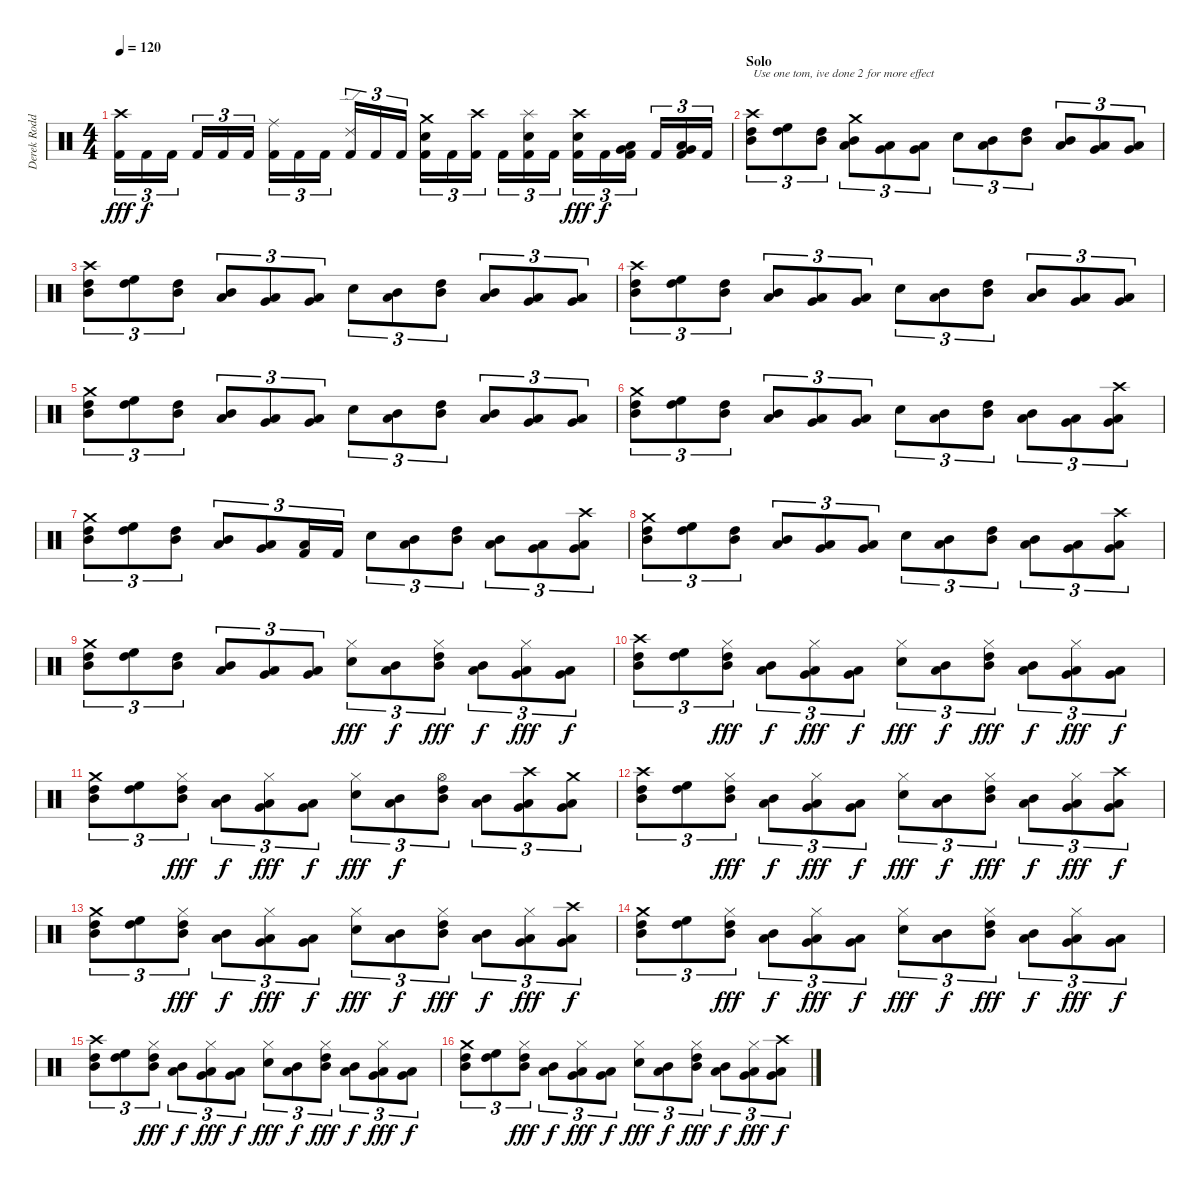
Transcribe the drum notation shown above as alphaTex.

\track ("Derek Roddy" "Derek Rodd") {instrument percussion}
\staff {score}
\articulation defaults
\ts (4 4)
\tempo 120
\clef neutral
\ks c
("Crash high (hit)" "Kick (hit) 2").16{tu (3 2) dy fff} "Kick (hit) 2".16{tu (3 2) dy f} "Kick (hit) 2".16{tu (3 2)} "Kick (hit) 2".16{tu (3 2)} "Kick (hit) 2".16{tu (3 2)} "Kick (hit) 2".16{tu (3 2)} ("Ride (middle)" "Kick (hit) 2").16{tu (3 2)} "Kick (hit) 2".16{tu (3 2)} "Kick (hit) 2".16{tu (3 2)} ("Ride (edge) 2" "Kick (hit) 2").16{tu (3 2)} "Kick (hit) 2".16{tu (3 2)} "Kick (hit) 2".16{tu (3 2)} ("Crash medium (hit)" "Electric Snare (hit)" "Kick (hit) 2").16{tu (3 2)} "Kick (hit) 2".16{tu (3 2)} ("Crash high (hit)" "Kick (hit) 2").16{tu (3 2)} "Kick (hit) 2".16{tu (3 2)} ("Splash (hit)" "Electric Snare (hit)" "Kick (hit) 2").16{tu (3 2)} "Kick (hit) 2".16{tu (3 2)} ("Crash high (hit)" "Electric Snare (hit)" "Kick (hit) 2").16{tu (3 2) dy fff} "Kick (hit) 2".16{tu (3 2) dy f} ("Low Tom (hit)" "Very Low Tom (hit)" "Kick (hit) 2").16{tu (3 2)} "Kick (hit) 2".16{tu (3 2)} ("Low Floor Tom (hit)" "Very Low Tom (hit)" "Kick (hit) 2").16{tu (3 2)} "Kick (hit) 2".16{tu (3 2)} |
\section ("" "Solo")
("Crash high (hit)" "Mid Tom (hit)" "High Tom (hit)").8{tu (3 2) txt "Use one tom, ive done 2 for more effect" volume 13} ("High Tom (hit)" "High Floor Tom (hit)").8{tu (3 2)} ("Mid Tom (hit)" "High Tom (hit)").8{tu (3 2)} ("Crash medium (hit)" "Low Tom (hit)" "Mid Tom (hit)").8{tu (3 2)} ("Very Low Tom (hit)" "Low Tom (hit)").8{tu (3 2)} ("Low Floor Tom (hit)" "Very Low Tom (hit)").8{tu (3 2)} "Electric Snare (hit)".8{tu (3 2)} ("Low Tom (hit)" "Mid Tom (hit)").8{tu (3 2)} ("Mid Tom (hit)" "High Tom (hit)").8{tu (3 2)} ("Low Tom (hit)" "Mid Tom (hit)").8{tu (3 2)} ("Very Low Tom (hit)" "Low Tom (hit)").8{tu (3 2)} ("Low Floor Tom (hit)" "Very Low Tom (hit)").8{tu (3 2)} |
("Crash high (hit)" "Mid Tom (hit)" "High Tom (hit)").8{tu (3 2) volume 13} ("High Tom (hit)" "High Floor Tom (hit)").8{tu (3 2)} ("Mid Tom (hit)" "High Tom (hit)").8{tu (3 2)} ("Low Tom (hit)" "Mid Tom (hit)").8{tu (3 2)} ("Very Low Tom (hit)" "Low Tom (hit)").8{tu (3 2)} ("Low Floor Tom (hit)" "Very Low Tom (hit)").8{tu (3 2)} "Electric Snare (hit)".8{tu (3 2)} ("Low Tom (hit)" "Mid Tom (hit)").8{tu (3 2)} ("Mid Tom (hit)" "High Tom (hit)").8{tu (3 2)} ("Low Tom (hit)" "Mid Tom (hit)").8{tu (3 2)} ("Very Low Tom (hit)" "Low Tom (hit)").8{tu (3 2)} ("Low Floor Tom (hit)" "Very Low Tom (hit)").8{tu (3 2)} |
("Crash high (hit)" "Mid Tom (hit)" "High Tom (hit)").8{tu (3 2)} ("High Tom (hit)" "High Floor Tom (hit)").8{tu (3 2)} ("Mid Tom (hit)" "High Tom (hit)").8{tu (3 2)} ("Low Tom (hit)" "Mid Tom (hit)").8{tu (3 2)} ("Very Low Tom (hit)" "Low Tom (hit)").8{tu (3 2)} ("Low Floor Tom (hit)" "Very Low Tom (hit)").8{tu (3 2)} "Electric Snare (hit)".8{tu (3 2)} ("Low Tom (hit)" "Mid Tom (hit)").8{tu (3 2)} ("Mid Tom (hit)" "High Tom (hit)").8{tu (3 2)} ("Low Tom (hit)" "Mid Tom (hit)").8{tu (3 2)} ("Very Low Tom (hit)" "Low Tom (hit)").8{tu (3 2)} ("Low Floor Tom (hit)" "Very Low Tom (hit)").8{tu (3 2)} |
("Crash medium (hit)" "Mid Tom (hit)" "High Tom (hit)").8{tu (3 2)} ("High Tom (hit)" "High Floor Tom (hit)").8{tu (3 2)} ("Mid Tom (hit)" "High Tom (hit)").8{tu (3 2)} ("Low Tom (hit)" "Mid Tom (hit)").8{tu (3 2)} ("Very Low Tom (hit)" "Low Tom (hit)").8{tu (3 2)} ("Low Floor Tom (hit)" "Very Low Tom (hit)").8{tu (3 2)} "Electric Snare (hit)".8{tu (3 2)} ("Low Tom (hit)" "Mid Tom (hit)").8{tu (3 2)} ("Mid Tom (hit)" "High Tom (hit)").8{tu (3 2)} ("Low Tom (hit)" "Mid Tom (hit)").8{tu (3 2)} ("Very Low Tom (hit)" "Low Tom (hit)").8{tu (3 2)} ("Low Floor Tom (hit)" "Very Low Tom (hit)").8{tu (3 2)} |
("Crash medium (hit)" "Mid Tom (hit)" "High Tom (hit)").8{tu (3 2)} ("High Tom (hit)" "High Floor Tom (hit)").8{tu (3 2)} ("Mid Tom (hit)" "High Tom (hit)").8{tu (3 2)} ("Low Tom (hit)" "Mid Tom (hit)").8{tu (3 2)} ("Very Low Tom (hit)" "Low Tom (hit)").8{tu (3 2)} ("Low Floor Tom (hit)" "Very Low Tom (hit)").8{tu (3 2)} "Electric Snare (hit)".8{tu (3 2)} ("Low Tom (hit)" "Mid Tom (hit)").8{tu (3 2)} ("Mid Tom (hit)" "High Tom (hit)").8{tu (3 2)} ("Low Tom (hit)" "Mid Tom (hit)").8{tu (3 2)} ("Very Low Tom (hit)" "Low Tom (hit)").8{tu (3 2)} ("Crash high (hit)" "Low Floor Tom (hit)" "Very Low Tom (hit)").8{tu (3 2)} |
("Crash medium (hit)" "Mid Tom (hit)" "High Tom (hit)").8{tu (3 2) volume 12} ("High Tom (hit)" "High Floor Tom (hit)").8{tu (3 2)} ("Mid Tom (hit)" "High Tom (hit)").8{tu (3 2)} ("Low Tom (hit)" "Mid Tom (hit)").8{tu (3 2)} ("Very Low Tom (hit)" "Low Tom (hit)").8{tu (3 2)} ("Low Floor Tom (hit)" "Kick (hit) 2").16{tu (3 2)} "Kick (hit) 2".16{tu (3 2)} "Electric Snare (hit)".8{tu (3 2)} ("Low Tom (hit)" "Mid Tom (hit)").8{tu (3 2)} ("Mid Tom (hit)" "High Tom (hit)").8{tu (3 2)} ("Low Tom (hit)" "Mid Tom (hit)").8{tu (3 2)} ("Very Low Tom (hit)" "Low Tom (hit)").8{tu (3 2)} ("Crash high (hit)" "Low Floor Tom (hit)" "Very Low Tom (hit)").8{tu (3 2)} |
("Crash medium (hit)" "Mid Tom (hit)" "High Tom (hit)").8{tu (3 2)} ("High Tom (hit)" "High Floor Tom (hit)").8{tu (3 2)} ("Mid Tom (hit)" "High Tom (hit)").8{tu (3 2)} ("Low Tom (hit)" "Mid Tom (hit)").8{tu (3 2)} ("Very Low Tom (hit)" "Low Tom (hit)").8{tu (3 2)} ("Low Floor Tom (hit)" "Very Low Tom (hit)").8{tu (3 2)} "Electric Snare (hit)".8{tu (3 2)} ("Low Tom (hit)" "Mid Tom (hit)").8{tu (3 2)} ("Mid Tom (hit)" "High Tom (hit)").8{tu (3 2)} ("Low Tom (hit)" "Mid Tom (hit)").8{tu (3 2)} ("Very Low Tom (hit)" "Low Tom (hit)").8{tu (3 2)} ("Crash high (hit)" "Low Floor Tom (hit)" "Very Low Tom (hit)").8{tu (3 2)} |
("Crash medium (hit)" "Mid Tom (hit)" "High Tom (hit)").8{tu (3 2)} ("High Tom (hit)" "High Floor Tom (hit)").8{tu (3 2)} ("Mid Tom (hit)" "High Tom (hit)").8{tu (3 2)} ("Low Tom (hit)" "Mid Tom (hit)").8{tu (3 2)} ("Very Low Tom (hit)" "Low Tom (hit)").8{tu (3 2)} ("Low Floor Tom (hit)" "Very Low Tom (hit)").8{tu (3 2)} ("Hi-Hat (closed)" "Electric Snare (hit)").8{tu (3 2) dy fff} ("Low Tom (hit)" "Mid Tom (hit)").8{tu (3 2) dy f} ("Hi-Hat (closed)" "Mid Tom (hit)" "High Tom (hit)").8{tu (3 2) dy fff} ("Low Tom (hit)" "Mid Tom (hit)").8{tu (3 2) dy f} ("Hi-Hat (closed)" "Very Low Tom (hit)" "Low Tom (hit)").8{tu (3 2) dy fff} ("Low Floor Tom (hit)" "Very Low Tom (hit)").8{tu (3 2) dy f} |
("Crash high (hit)" "Mid Tom (hit)" "High Tom (hit)").8{tu (3 2)} ("High Tom (hit)" "High Floor Tom (hit)").8{tu (3 2)} ("Hi-Hat (closed)" "Mid Tom (hit)" "High Tom (hit)").8{tu (3 2) dy fff} ("Low Tom (hit)" "Mid Tom (hit)").8{tu (3 2) dy f} ("Hi-Hat (closed)" "Very Low Tom (hit)" "Low Tom (hit)").8{tu (3 2) dy fff} ("Low Floor Tom (hit)" "Very Low Tom (hit)").8{tu (3 2) dy f} ("Hi-Hat (closed)" "Electric Snare (hit)").8{tu (3 2) dy fff} ("Low Tom (hit)" "Mid Tom (hit)").8{tu (3 2) dy f} ("Hi-Hat (closed)" "Mid Tom (hit)" "High Tom (hit)").8{tu (3 2) dy fff} ("Low Tom (hit)" "Mid Tom (hit)").8{tu (3 2) dy f} ("Hi-Hat (closed)" "Very Low Tom (hit)" "Low Tom (hit)").8{tu (3 2) dy fff} ("Low Floor Tom (hit)" "Very Low Tom (hit)").8{tu (3 2) dy f} |
("Crash medium (hit)" "Mid Tom (hit)" "High Tom (hit)").8{tu (3 2) volume 12} ("High Tom (hit)" "High Floor Tom (hit)").8{tu (3 2)} ("Hi-Hat (closed)" "Mid Tom (hit)" "High Tom (hit)").8{tu (3 2) dy fff} ("Low Tom (hit)" "Mid Tom (hit)").8{tu (3 2) dy f} ("Hi-Hat (closed)" "Very Low Tom (hit)" "Low Tom (hit)").8{tu (3 2) dy fff} ("Low Floor Tom (hit)" "Very Low Tom (hit)").8{tu (3 2) dy f} ("Hi-Hat (closed)" "Electric Snare (hit)").8{tu (3 2) dy fff} ("Low Tom (hit)" "Mid Tom (hit)").8{tu (3 2) dy f} ("Hi-Hat (open)" "Mid Tom (hit)" "High Tom (hit)").8{tu (3 2)} ("Low Tom (hit)" "Mid Tom (hit)").8{tu (3 2)} ("Crash high (hit)" "Very Low Tom (hit)" "Low Tom (hit)").8{tu (3 2)} ("Crash medium (hit)" "Low Floor Tom (hit)" "Very Low Tom (hit)").8{tu (3 2)} |
("Crash high (hit)" "Mid Tom (hit)" "High Tom (hit)").8{tu (3 2)} ("High Tom (hit)" "High Floor Tom (hit)").8{tu (3 2)} ("Hi-Hat (closed)" "Mid Tom (hit)" "High Tom (hit)").8{tu (3 2) dy fff} ("Low Tom (hit)" "Mid Tom (hit)").8{tu (3 2) dy f} ("Hi-Hat (closed)" "Very Low Tom (hit)" "Low Tom (hit)").8{tu (3 2) dy fff} ("Low Floor Tom (hit)" "Very Low Tom (hit)").8{tu (3 2) dy f} ("Hi-Hat (closed)" "Electric Snare (hit)").8{tu (3 2) dy fff} ("Low Tom (hit)" "Mid Tom (hit)").8{tu (3 2) dy f} ("Hi-Hat (closed)" "Mid Tom (hit)" "High Tom (hit)").8{tu (3 2) dy fff} ("Low Tom (hit)" "Mid Tom (hit)").8{tu (3 2) dy f} ("Hi-Hat (closed)" "Very Low Tom (hit)" "Low Tom (hit)").8{tu (3 2) dy fff} ("Crash high (hit)" "Low Floor Tom (hit)" "Very Low Tom (hit)").8{tu (3 2) dy f} |
("Crash medium (hit)" "Mid Tom (hit)" "High Tom (hit)").8{tu (3 2)} ("High Tom (hit)" "High Floor Tom (hit)").8{tu (3 2)} ("Hi-Hat (closed)" "Mid Tom (hit)" "High Tom (hit)").8{tu (3 2) dy fff} ("Low Tom (hit)" "Mid Tom (hit)").8{tu (3 2) dy f} ("Hi-Hat (closed)" "Very Low Tom (hit)" "Low Tom (hit)").8{tu (3 2) dy fff} ("Low Floor Tom (hit)" "Very Low Tom (hit)").8{tu (3 2) dy f} ("Hi-Hat (closed)" "Electric Snare (hit)").8{tu (3 2) dy fff} ("Low Tom (hit)" "Mid Tom (hit)").8{tu (3 2) dy f} ("Hi-Hat (closed)" "Mid Tom (hit)" "High Tom (hit)").8{tu (3 2) dy fff} ("Low Tom (hit)" "Mid Tom (hit)").8{tu (3 2) dy f} ("Hi-Hat (closed)" "Very Low Tom (hit)" "Low Tom (hit)").8{tu (3 2) dy fff} ("Crash high (hit)" "Low Floor Tom (hit)" "Very Low Tom (hit)").8{tu (3 2) dy f} |
("Crash medium (hit)" "Mid Tom (hit)" "High Tom (hit)").8{tu (3 2)} ("High Tom (hit)" "High Floor Tom (hit)").8{tu (3 2)} ("Hi-Hat (closed)" "Mid Tom (hit)" "High Tom (hit)").8{tu (3 2) dy fff} ("Low Tom (hit)" "Mid Tom (hit)").8{tu (3 2) dy f} ("Hi-Hat (closed)" "Very Low Tom (hit)" "Low Tom (hit)").8{tu (3 2) dy fff} ("Low Floor Tom (hit)" "Very Low Tom (hit)").8{tu (3 2) dy f} ("Hi-Hat (closed)" "Electric Snare (hit)").8{tu (3 2) dy fff} ("Low Tom (hit)" "Mid Tom (hit)").8{tu (3 2) dy f} ("Hi-Hat (closed)" "Mid Tom (hit)" "High Tom (hit)").8{tu (3 2) dy fff} ("Low Tom (hit)" "Mid Tom (hit)").8{tu (3 2) dy f} ("Hi-Hat (closed)" "Very Low Tom (hit)" "Low Tom (hit)").8{tu (3 2) dy fff} ("Low Floor Tom (hit)" "Very Low Tom (hit)").8{tu (3 2) dy f} |
("Crash high (hit)" "Mid Tom (hit)" "High Tom (hit)").8{tu (3 2)} ("High Tom (hit)" "High Floor Tom (hit)").8{tu (3 2)} ("Hi-Hat (closed)" "Mid Tom (hit)" "High Tom (hit)").8{tu (3 2) dy fff} ("Low Tom (hit)" "Mid Tom (hit)").8{tu (3 2) dy f} ("Hi-Hat (closed)" "Very Low Tom (hit)" "Low Tom (hit)").8{tu (3 2) dy fff} ("Low Floor Tom (hit)" "Very Low Tom (hit)").8{tu (3 2) dy f} ("Hi-Hat (closed)" "Electric Snare (hit)").8{tu (3 2) dy fff} ("Low Tom (hit)" "Mid Tom (hit)").8{tu (3 2) dy f} ("Hi-Hat (closed)" "Mid Tom (hit)" "High Tom (hit)").8{tu (3 2) dy fff} ("Low Tom (hit)" "Mid Tom (hit)").8{tu (3 2) dy f} ("Hi-Hat (closed)" "Very Low Tom (hit)" "Low Tom (hit)").8{tu (3 2) dy fff} ("Low Floor Tom (hit)" "Very Low Tom (hit)").8{tu (3 2) dy f} |
("Crash medium (hit)" "Mid Tom (hit)" "High Tom (hit)").8{tu (3 2)} ("High Tom (hit)" "High Floor Tom (hit)").8{tu (3 2)} ("Hi-Hat (closed)" "Mid Tom (hit)" "High Tom (hit)").8{tu (3 2) dy fff} ("Low Tom (hit)" "Mid Tom (hit)").8{tu (3 2) dy f} ("Hi-Hat (closed)" "Very Low Tom (hit)" "Low Tom (hit)").8{tu (3 2) dy fff} ("Low Floor Tom (hit)" "Very Low Tom (hit)").8{tu (3 2) dy f} ("Hi-Hat (closed)" "Electric Snare (hit)").8{tu (3 2) dy fff} ("Low Tom (hit)" "Mid Tom (hit)").8{tu (3 2) dy f} ("Hi-Hat (closed)" "Mid Tom (hit)" "High Tom (hit)").8{tu (3 2) dy fff} ("Low Tom (hit)" "Mid Tom (hit)").8{tu (3 2) dy f} ("Hi-Hat (closed)" "Very Low Tom (hit)" "Low Tom (hit)").8{tu (3 2) dy fff} ("Crash high (hit)" "Low Floor Tom (hit)" "Very Low Tom (hit)").8{tu (3 2) dy f}
